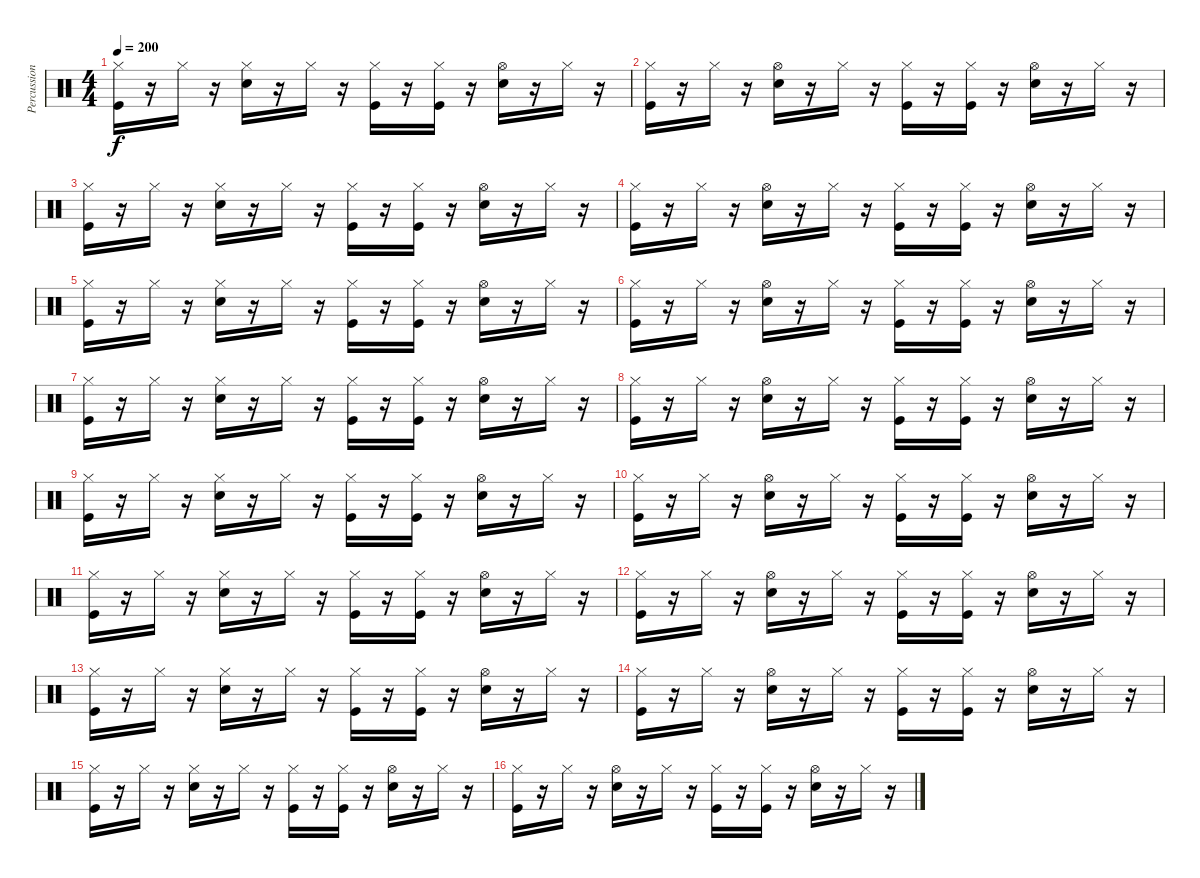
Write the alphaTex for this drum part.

\track ("Percussion" "Percussion") {instrument percussion}
\staff {score}
\articulation defaults
\ts (4 4)
\tempo 200
\clef neutral
\ks c
("Hi-Hat (closed)" "Kick (hit)").16{dy f} r.16 "Hi-Hat (closed)".16 r.16 ("Hi-Hat (closed)" "Snare (hit) 2").16 r.16 "Hi-Hat (closed)".16 r.16 ("Hi-Hat (closed)" "Kick (hit)").16 r.16 ("Kick (hit)" "Hi-Hat (closed)").16 r.16 ("Hi-Hat (open)" "Snare (hit) 2").16 r.16 "Hi-Hat (closed)".16 r.16 |
("Hi-Hat (closed)" "Kick (hit)").16 r.16 "Hi-Hat (closed)".16 r.16 ("Hi-Hat (open)" "Snare (hit) 2").16 r.16 "Hi-Hat (closed)".16 r.16 ("Hi-Hat (closed)" "Kick (hit)").16 r.16 ("Kick (hit)" "Hi-Hat (closed)").16 r.16 ("Hi-Hat (open)" "Snare (hit) 2").16 r.16 "Hi-Hat (closed)".16 r.16 |
("Hi-Hat (closed)" "Kick (hit)").16 r.16 "Hi-Hat (closed)".16 r.16 ("Hi-Hat (closed)" "Snare (hit) 2").16 r.16 "Hi-Hat (closed)".16 r.16 ("Hi-Hat (closed)" "Kick (hit)").16 r.16 ("Kick (hit)" "Hi-Hat (closed)").16 r.16 ("Hi-Hat (open)" "Snare (hit) 2").16 r.16 "Hi-Hat (closed)".16 r.16 |
("Hi-Hat (closed)" "Kick (hit)").16 r.16 "Hi-Hat (closed)".16 r.16 ("Hi-Hat (open)" "Snare (hit) 2").16 r.16 "Hi-Hat (closed)".16 r.16 ("Hi-Hat (closed)" "Kick (hit)").16 r.16 ("Kick (hit)" "Hi-Hat (closed)").16 r.16 ("Hi-Hat (open)" "Snare (hit) 2").16 r.16 "Hi-Hat (closed)".16 r.16 |
("Hi-Hat (closed)" "Kick (hit)").16 r.16 "Hi-Hat (closed)".16 r.16 ("Hi-Hat (closed)" "Snare (hit) 2").16 r.16 "Hi-Hat (closed)".16 r.16 ("Hi-Hat (closed)" "Kick (hit)").16 r.16 ("Kick (hit)" "Hi-Hat (closed)").16 r.16 ("Hi-Hat (open)" "Snare (hit) 2").16 r.16 "Hi-Hat (closed)".16 r.16 |
("Hi-Hat (closed)" "Kick (hit)").16 r.16 "Hi-Hat (closed)".16 r.16 ("Hi-Hat (open)" "Snare (hit) 2").16 r.16 "Hi-Hat (closed)".16 r.16 ("Hi-Hat (closed)" "Kick (hit)").16 r.16 ("Kick (hit)" "Hi-Hat (closed)").16 r.16 ("Hi-Hat (open)" "Snare (hit) 2").16 r.16 "Hi-Hat (closed)".16 r.16 |
("Hi-Hat (closed)" "Kick (hit)").16 r.16 "Hi-Hat (closed)".16 r.16 ("Hi-Hat (closed)" "Snare (hit) 2").16 r.16 "Hi-Hat (closed)".16 r.16 ("Hi-Hat (closed)" "Kick (hit)").16 r.16 ("Kick (hit)" "Hi-Hat (closed)").16 r.16 ("Hi-Hat (open)" "Snare (hit) 2").16 r.16 "Hi-Hat (closed)".16 r.16 |
("Hi-Hat (closed)" "Kick (hit)").16 r.16 "Hi-Hat (closed)".16 r.16 ("Hi-Hat (open)" "Snare (hit) 2").16 r.16 "Hi-Hat (closed)".16 r.16 ("Hi-Hat (closed)" "Kick (hit)").16 r.16 ("Kick (hit)" "Hi-Hat (closed)").16 r.16 ("Hi-Hat (open)" "Snare (hit) 2").16 r.16 "Hi-Hat (closed)".16 r.16 |
("Hi-Hat (closed)" "Kick (hit)").16 r.16 "Hi-Hat (closed)".16 r.16 ("Hi-Hat (closed)" "Snare (hit) 2").16 r.16 "Hi-Hat (closed)".16 r.16 ("Hi-Hat (closed)" "Kick (hit)").16 r.16 ("Kick (hit)" "Hi-Hat (closed)").16 r.16 ("Hi-Hat (open)" "Snare (hit) 2").16 r.16 "Hi-Hat (closed)".16 r.16 |
("Hi-Hat (closed)" "Kick (hit)").16 r.16 "Hi-Hat (closed)".16 r.16 ("Hi-Hat (open)" "Snare (hit) 2").16 r.16 "Hi-Hat (closed)".16 r.16 ("Hi-Hat (closed)" "Kick (hit)").16 r.16 ("Kick (hit)" "Hi-Hat (closed)").16 r.16 ("Hi-Hat (open)" "Snare (hit) 2").16 r.16 "Hi-Hat (closed)".16 r.16 |
("Hi-Hat (closed)" "Kick (hit)").16 r.16 "Hi-Hat (closed)".16 r.16 ("Hi-Hat (closed)" "Snare (hit) 2").16 r.16 "Hi-Hat (closed)".16 r.16 ("Hi-Hat (closed)" "Kick (hit)").16 r.16 ("Kick (hit)" "Hi-Hat (closed)").16 r.16 ("Hi-Hat (open)" "Snare (hit) 2").16 r.16 "Hi-Hat (closed)".16 r.16 |
("Hi-Hat (closed)" "Kick (hit)").16 r.16 "Hi-Hat (closed)".16 r.16 ("Hi-Hat (open)" "Snare (hit) 2").16 r.16 "Hi-Hat (closed)".16 r.16 ("Hi-Hat (closed)" "Kick (hit)").16 r.16 ("Kick (hit)" "Hi-Hat (closed)").16 r.16 ("Hi-Hat (open)" "Snare (hit) 2").16 r.16 "Hi-Hat (closed)".16 r.16 |
("Hi-Hat (closed)" "Kick (hit)").16 r.16 "Hi-Hat (closed)".16 r.16 ("Hi-Hat (closed)" "Snare (hit) 2").16 r.16 "Hi-Hat (closed)".16 r.16 ("Hi-Hat (closed)" "Kick (hit)").16 r.16 ("Kick (hit)" "Hi-Hat (closed)").16 r.16 ("Hi-Hat (open)" "Snare (hit) 2").16 r.16 "Hi-Hat (closed)".16 r.16 |
("Hi-Hat (closed)" "Kick (hit)").16 r.16 "Hi-Hat (closed)".16 r.16 ("Hi-Hat (open)" "Snare (hit) 2").16 r.16 "Hi-Hat (closed)".16 r.16 ("Hi-Hat (closed)" "Kick (hit)").16 r.16 ("Kick (hit)" "Hi-Hat (closed)").16 r.16 ("Hi-Hat (open)" "Snare (hit) 2").16 r.16 "Hi-Hat (closed)".16 r.16 |
("Hi-Hat (closed)" "Kick (hit)").16 r.16 "Hi-Hat (closed)".16 r.16 ("Hi-Hat (closed)" "Snare (hit) 2").16 r.16 "Hi-Hat (closed)".16 r.16 ("Hi-Hat (closed)" "Kick (hit)").16 r.16 ("Kick (hit)" "Hi-Hat (closed)").16 r.16 ("Hi-Hat (open)" "Snare (hit) 2").16 r.16 "Hi-Hat (closed)".16 r.16 |
("Hi-Hat (closed)" "Kick (hit)").16 r.16 "Hi-Hat (closed)".16 r.16 ("Hi-Hat (open)" "Snare (hit) 2").16 r.16 "Hi-Hat (closed)".16 r.16 ("Hi-Hat (closed)" "Kick (hit)").16 r.16 ("Kick (hit)" "Hi-Hat (closed)").16 r.16 ("Hi-Hat (open)" "Snare (hit) 2").16 r.16 "Hi-Hat (closed)".16 r.16
